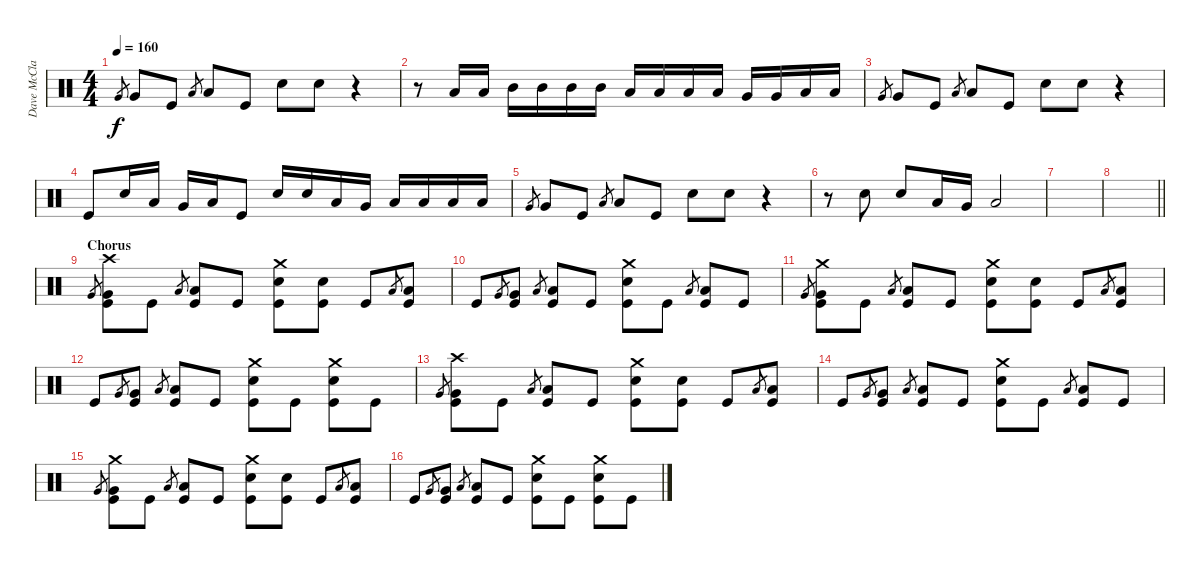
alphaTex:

\track ("Dave McClain" "Dave McCla") {instrument percussion}
\staff {score}
\articulation defaults
\ts (4 4)
\tempo 160
\clef neutral
\ks c "Very Low Tom (hit)".8{gr dy f} "Very Low Tom (hit)".8 "Kick (hit)".8 "Low Floor Tom (hit)".8{gr} "Low Floor Tom (hit)".8 "Kick (hit)".8 "Electric Snare (hit)".8 "Electric Snare (hit)".8
r.4 |
r.8 "Low Tom (hit)".16 "Low Tom (hit)".16 "Mid Tom (hit)".16 "Mid Tom (hit)".16 "Mid Tom (hit)".16 "Mid Tom (hit)".16 "Low Tom (hit)".16 "Low Tom (hit)".16 "Low Tom (hit)".16 "Low Tom (hit)".16 "Very Low Tom (hit)".16 "Very Low Tom (hit)".16 "Low Floor Tom (hit)".16 "Low Floor Tom (hit)".16 |
"Very Low Tom (hit)".8{gr} "Very Low Tom (hit)".8 "Kick (hit)".8 "Low Floor Tom (hit)".8{gr} "Low Floor Tom (hit)".8 "Kick (hit)".8 "Electric Snare (hit)".8 "Electric Snare (hit)".8 r.4 |
"Kick (hit)".8 "Electric Snare (hit)".16 "Low Tom (hit)".16 "Very Low Tom (hit)".16 "Low Floor Tom (hit)".16 "Kick (hit)".8 "Electric Snare (hit)".16 "Electric Snare (hit)".16 "Low Tom (hit)".16 "Very Low Tom (hit)".16 "Low Floor Tom (hit)".16 "Low Floor Tom (hit)".16 "Low Floor Tom (hit)".16 "Low Floor Tom (hit)".16 |
"Very Low Tom (hit)".8{gr} "Very Low Tom (hit)".8 "Kick (hit)".8 "Low Floor Tom (hit)".8{gr} "Low Floor Tom (hit)".8 "Kick (hit)".8 "Electric Snare (hit)".8 "Electric Snare (hit)".8 r.4 |
r.8 "Electric Snare (hit)".8 "Electric Snare (hit)".8 "Low Tom (hit)".16 "Very Low Tom (hit)".16 "Low Floor Tom (hit)".2 |
|
\barLineRight lightlight
|
\section ("" "Chorus")
"Very Low Tom (hit)".8{gr} ("Crash high (hit)" "Very Low Tom (hit)" "Kick (hit)").8 "Kick (hit)".8 "Low Floor Tom (hit)".8{gr} ("Low Floor Tom (hit)" "Kick (hit)").8 "Kick (hit)".8 ("Crash medium (hit)" "Electric Snare (hit)" "Kick (hit)").8 ("Electric Snare (hit)" "Kick (hit)").8 "Kick (hit)".8 "Low Tom (hit)".8{gr} ("Low Tom (hit)" "Kick (hit)").8 |
"Kick (hit)".8 "Very Low Tom (hit)".8{gr} ("Very Low Tom (hit)" "Kick (hit)").8 "Low Floor Tom (hit)".8{gr} ("Low Floor Tom (hit)" "Kick (hit)").8 "Kick (hit)".8 ("Crash medium (hit)" "Electric Snare (hit)" "Kick (hit)").8 "Kick (hit)".8 "Low Floor Tom (hit)".8{gr} ("Low Floor Tom (hit)" "Kick (hit)").8 "Kick (hit)".8 |
"Very Low Tom (hit)".8{gr} ("Crash medium (hit)" "Very Low Tom (hit)" "Kick (hit)").8 "Kick (hit)".8 "Low Floor Tom (hit)".8{gr} ("Low Floor Tom (hit)" "Kick (hit)").8 "Kick (hit)".8 ("Crash medium (hit)" "Electric Snare (hit)" "Kick (hit)").8 ("Electric Snare (hit)" "Kick (hit)").8 "Kick (hit)".8 "Low Tom (hit)".8{gr} ("Low Tom (hit)" "Kick (hit)").8 |
"Kick (hit)".8 "Very Low Tom (hit)".8{gr} ("Very Low Tom (hit)" "Kick (hit)").8 "Low Floor Tom (hit)".8{gr} ("Low Floor Tom (hit)" "Kick (hit)").8 "Kick (hit)".8 ("Crash medium (hit)" "Electric Snare (hit)" "Kick (hit)").8 "Kick (hit)".8 ("Crash medium (hit)" "Electric Snare (hit)" "Kick (hit)").8 "Kick (hit)".8 |
"Very Low Tom (hit)".8{gr} ("Crash high (hit)" "Very Low Tom (hit)" "Kick (hit)").8 "Kick (hit)".8 "Low Floor Tom (hit)".8{gr} ("Low Floor Tom (hit)" "Kick (hit)").8 "Kick (hit)".8 ("Crash medium (hit)" "Electric Snare (hit)" "Kick (hit)").8 ("Electric Snare (hit)" "Kick (hit)").8 "Kick (hit)".8 "Low Tom (hit)".8{gr} ("Low Tom (hit)" "Kick (hit)").8 |
"Kick (hit)".8 "Very Low Tom (hit)".8{gr} ("Very Low Tom (hit)" "Kick (hit)").8 "Low Floor Tom (hit)".8{gr} ("Low Floor Tom (hit)" "Kick (hit)").8 "Kick (hit)".8 ("Crash medium (hit)" "Electric Snare (hit)" "Kick (hit)").8 "Kick (hit)".8 "Low Floor Tom (hit)".8{gr} ("Low Floor Tom (hit)" "Kick (hit)").8 "Kick (hit)".8 |
"Very Low Tom (hit)".8{gr} ("Crash medium (hit)" "Very Low Tom (hit)" "Kick (hit)").8 "Kick (hit)".8 "Low Floor Tom (hit)".8{gr} ("Low Floor Tom (hit)" "Kick (hit)").8 "Kick (hit)".8 ("Crash medium (hit)" "Electric Snare (hit)" "Kick (hit)").8 ("Electric Snare (hit)" "Kick (hit)").8 "Kick (hit)".8 "Low Tom (hit)".8{gr} ("Low Tom (hit)" "Kick (hit)").8 |
"Kick (hit)".8 "Very Low Tom (hit)".8{gr} ("Very Low Tom (hit)" "Kick (hit)").8 "Low Floor Tom (hit)".8{gr} ("Low Floor Tom (hit)" "Kick (hit)").8 "Kick (hit)".8 ("Crash medium (hit)" "Electric Snare (hit)" "Kick (hit)").8 "Kick (hit)".8 ("Crash medium (hit)" "Electric Snare (hit)" "Kick (hit)").8 "Kick (hit)".8
